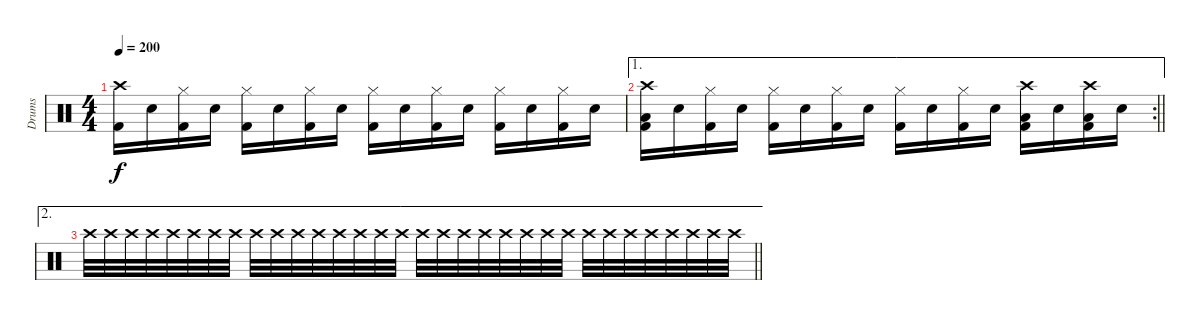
\track ("Drums" "Drums") {instrument percussion}
\staff {score}
\articulation defaults
\ts (4 4)
\tempo 200
\clef neutral
\ks c
("Crash high (hit)" "Kick (hit) 2").16{dy f} "Snare (hit) 2".16 ("Hi-Hat (closed)" "Kick (hit) 2").16 "Snare (hit) 2".16 ("Hi-Hat (closed)" "Kick (hit) 2").16 "Snare (hit) 2".16 ("Hi-Hat (closed)" "Kick (hit) 2").16 "Snare (hit) 2".16 ("Hi-Hat (closed)" "Kick (hit) 2").16 "Snare (hit) 2".16 ("Hi-Hat (closed)" "Kick (hit) 2").16 "Snare (hit) 2".16 ("Hi-Hat (closed)" "Kick (hit) 2").16 "Snare (hit) 2".16 ("Hi-Hat (closed)" "Kick (hit) 2").16 "Snare (hit) 2".16 |
\ae 1
\rc 2
\barLineRight lightlight
("Crash high (hit)" "Low Floor Tom (hit)" "Kick (hit) 2").16 "Snare (hit) 2".16 ("Hi-Hat (closed)" "Kick (hit) 2").16 "Snare (hit) 2".16 ("Hi-Hat (closed)" "Kick (hit) 2").16 "Snare (hit) 2".16 ("Hi-Hat (closed)" "Kick (hit) 2").16 "Snare (hit) 2".16 ("Hi-Hat (closed)" "Kick (hit) 2").16 "Snare (hit) 2".16 ("Hi-Hat (closed)" "Kick (hit) 2").16 "Snare (hit) 2".16 ("Crash high (hit)" "Low Floor Tom (hit)" "Kick (hit) 2").16 "Snare (hit) 2".16 ("Crash high (hit)" "Low Floor Tom (hit)" "Kick (hit) 2").16 "Snare (hit) 2".16 |
\ae 2
\barLineRight lightlight "Crash high (hit)".32 "Crash high (hit)".32 "Crash high (hit)".32 "Crash high (hit)".32 "Crash high (hit)".32 "Crash high (hit)".32 "Crash high (hit)".32 "Crash high (hit)".32 "Crash high (hit)".32 "Crash high (hit)".32 "Crash high (hit)".32 "Crash high (hit)".32 "Crash high (hit)".32 "Crash high (hit)".32 "Crash high (hit)".32 "Crash high (hit)".32 "Crash high (hit)".32 "Crash high (hit)".32 "Crash high (hit)".32 "Crash high (hit)".32 "Crash high (hit)".32 "Crash high (hit)".32 "Crash high (hit)".32 "Crash high (hit)".32 "Crash high (hit)".32 "Crash high (hit)".32 "Crash high (hit)".32 "Crash high (hit)".32 "Crash high (hit)".32 "Crash high (hit)".32 "Crash high (hit)".32 "Crash high (hit)".32
